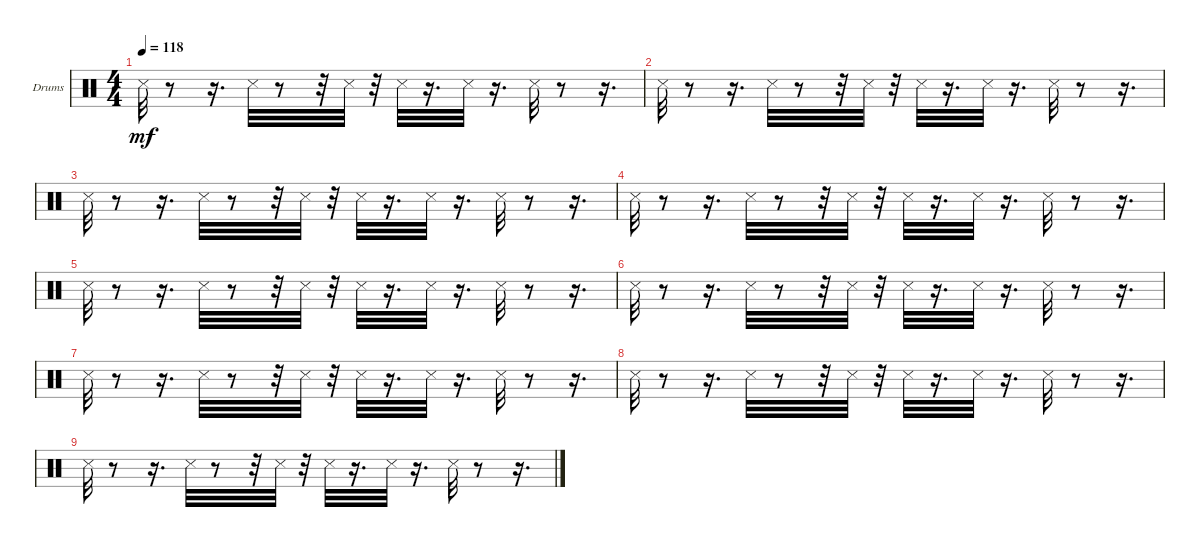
\bracketExtendMode groupsimilarinstruments
\firstSystemTrackNameOrientation horizontal
\otherSystemsTrackNameOrientation horizontal
\track ("Drums" "Drums") {instrument percussion}
\staff {score}
\articulation defaults
\ts (4 4)
\tempo 118
\clef neutral
\ks c "Snare (side stick) 3".32{dy mf}
r.8 r.16{d} "Snare (side stick) 3".32 r.8 r.32 "Snare (side stick) 3".32 r.32 "Snare (side stick) 3".32 r.16{d} "Snare (side stick) 3".32 r.16{d} "Snare (side stick) 3".32 r.8 r.16{d} |
"Snare (side stick) 3".32 r.8 r.16{d} "Snare (side stick) 3".32 r.8 r.32 "Snare (side stick) 3".32 r.32 "Snare (side stick) 3".32 r.16{d} "Snare (side stick) 3".32 r.16{d} "Snare (side stick) 3".32 r.8 r.16{d} |
"Snare (side stick) 3".32 r.8 r.16{d} "Snare (side stick) 3".32 r.8 r.32 "Snare (side stick) 3".32 r.32 "Snare (side stick) 3".32 r.16{d} "Snare (side stick) 3".32 r.16{d} "Snare (side stick) 3".32 r.8 r.16{d} |
"Snare (side stick) 3".32 r.8 r.16{d} "Snare (side stick) 3".32 r.8 r.32 "Snare (side stick) 3".32 r.32 "Snare (side stick) 3".32 r.16{d} "Snare (side stick) 3".32 r.16{d} "Snare (side stick) 3".32 r.8 r.16{d} |
"Snare (side stick) 3".32 r.8 r.16{d} "Snare (side stick) 3".32 r.8 r.32 "Snare (side stick) 3".32 r.32 "Snare (side stick) 3".32 r.16{d} "Snare (side stick) 3".32 r.16{d} "Snare (side stick) 3".32 r.8 r.16{d} |
"Snare (side stick) 3".32 r.8 r.16{d} "Snare (side stick) 3".32 r.8 r.32 "Snare (side stick) 3".32 r.32 "Snare (side stick) 3".32 r.16{d} "Snare (side stick) 3".32 r.16{d} "Snare (side stick) 3".32 r.8 r.16{d} |
"Snare (side stick) 3".32 r.8 r.16{d} "Snare (side stick) 3".32 r.8 r.32 "Snare (side stick) 3".32 r.32 "Snare (side stick) 3".32 r.16{d} "Snare (side stick) 3".32 r.16{d} "Snare (side stick) 3".32 r.8 r.16{d} |
"Snare (side stick) 3".32 r.8 r.16{d} "Snare (side stick) 3".32 r.8 r.32 "Snare (side stick) 3".32 r.32 "Snare (side stick) 3".32 r.16{d} "Snare (side stick) 3".32 r.16{d} "Snare (side stick) 3".32 r.8 r.16{d} |
"Snare (side stick) 3".32 r.8 r.16{d} "Snare (side stick) 3".32 r.8 r.32 "Snare (side stick) 3".32 r.32 "Snare (side stick) 3".32 r.16{d} "Snare (side stick) 3".32 r.16{d} "Snare (side stick) 3".32 r.8 r.16{d}
